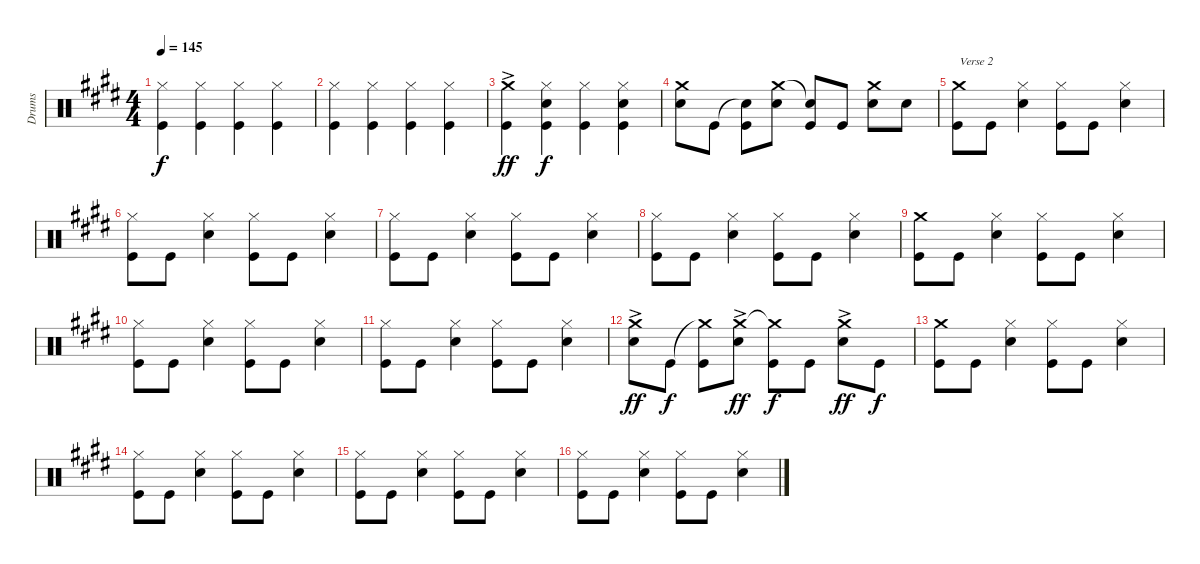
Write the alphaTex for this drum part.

\track ("Drums" "Drums") {instrument percussion}
\staff {score}
\articulation defaults
\ts (4 4)
\tempo 145
\clef neutral
\ks e
("Hi-Hat (closed)" "Kick (hit)").4{dy f} ("Hi-Hat (closed)" "Kick (hit)").4 ("Hi-Hat (closed)" "Kick (hit)").4 ("Hi-Hat (closed)" "Kick (hit)").4 |
("Hi-Hat (closed)" "Kick (hit)").4 ("Hi-Hat (closed)" "Kick (hit)").4 ("Hi-Hat (closed)" "Kick (hit)").4 ("Hi-Hat (closed)" "Kick (hit)").4 |
("Crash medium (hit)"{ac} "Kick (hit)").4{dy ff} ("Hi-Hat (closed)" "Snare (hit) 2" "Kick (hit)").4{dy f} ("Hi-Hat (closed)" "Kick (hit)").4 ("Hi-Hat (closed)" "Snare (hit) 2" "Kick (hit)").4 |
("Crash medium (hit)" "Snare (hit) 2").8 "Kick (hit)".8 ("Snare (hit)"{t} "Kick (hit)").8 ("Crash medium (hit)" "Snare (hit) 2").8 ("Snare (hit)"{t} "Kick (hit)").8 "Kick (hit)".8 ("Crash medium (hit)" "Snare (hit) 2").8 "Snare (hit) 2".8 |
("Crash medium (hit)" "Kick (hit)").8{txt "Verse 2"} "Kick (hit)".8 ("Hi-Hat (closed)" "Snare (hit) 2").4 ("Hi-Hat (closed)" "Kick (hit)").8 "Kick (hit)".8 ("Hi-Hat (closed)" "Snare (hit) 2").4 |
("Hi-Hat (closed)" "Kick (hit)").8 "Kick (hit)".8 ("Hi-Hat (closed)" "Snare (hit) 2").4 ("Hi-Hat (closed)" "Kick (hit)").8 "Kick (hit)".8 ("Hi-Hat (closed)" "Snare (hit) 2").4 |
("Hi-Hat (closed)" "Kick (hit)").8 "Kick (hit)".8 ("Hi-Hat (closed)" "Snare (hit) 2").4 ("Hi-Hat (closed)" "Kick (hit)").8 "Kick (hit)".8 ("Hi-Hat (closed)" "Snare (hit) 2").4 |
("Hi-Hat (closed)" "Kick (hit)").8 "Kick (hit)".8 ("Hi-Hat (closed)" "Snare (hit) 2").4 ("Hi-Hat (closed)" "Kick (hit)").8 "Kick (hit)".8 ("Hi-Hat (closed)" "Snare (hit) 2").4 |
("Crash medium (hit)" "Kick (hit)").8 "Kick (hit)".8 ("Hi-Hat (closed)" "Snare (hit) 2").4 ("Hi-Hat (closed)" "Kick (hit)").8 "Kick (hit)".8 ("Hi-Hat (closed)" "Snare (hit) 2").4 |
("Hi-Hat (closed)" "Kick (hit)").8 "Kick (hit)".8 ("Hi-Hat (closed)" "Snare (hit) 2").4 ("Hi-Hat (closed)" "Kick (hit)").8 "Kick (hit)".8 ("Hi-Hat (closed)" "Snare (hit) 2").4 |
("Hi-Hat (closed)" "Kick (hit)").8 "Kick (hit)".8 ("Hi-Hat (closed)" "Snare (hit) 2").4 ("Hi-Hat (closed)" "Kick (hit)").8 "Kick (hit)".8 ("Hi-Hat (closed)" "Snare (hit) 2").4 |
("Crash medium (hit)"{ac} "Snare (hit) 2").8{dy ff} "Kick (hit)".8{dy f} ("Crash medium (hit)"{t} "Kick (hit)").8 ("Crash medium (hit)"{ac} "Snare (hit) 2").8{dy ff} ("Crash medium (hit)"{t} "Kick (hit)").8{dy f} "Kick (hit)".8 ("Crash medium (hit)"{ac} "Snare (hit) 2").8{dy ff} "Kick (hit)".8{dy f} |
("Crash medium (hit)" "Kick (hit)").8 "Kick (hit)".8 ("Hi-Hat (closed)" "Snare (hit) 2").4 ("Hi-Hat (closed)" "Kick (hit)").8 "Kick (hit)".8 ("Hi-Hat (closed)" "Snare (hit) 2").4 |
("Hi-Hat (closed)" "Kick (hit)").8 "Kick (hit)".8 ("Hi-Hat (closed)" "Snare (hit) 2").4 ("Hi-Hat (closed)" "Kick (hit)").8 "Kick (hit)".8 ("Hi-Hat (closed)" "Snare (hit) 2").4 |
("Hi-Hat (closed)" "Kick (hit)").8 "Kick (hit)".8 ("Hi-Hat (closed)" "Snare (hit) 2").4 ("Hi-Hat (closed)" "Kick (hit)").8 "Kick (hit)".8 ("Hi-Hat (closed)" "Snare (hit) 2").4 |
("Hi-Hat (closed)" "Kick (hit)").8 "Kick (hit)".8 ("Hi-Hat (closed)" "Snare (hit) 2").4 ("Hi-Hat (closed)" "Kick (hit)").8 "Kick (hit)".8 ("Hi-Hat (closed)" "Snare (hit) 2").4
